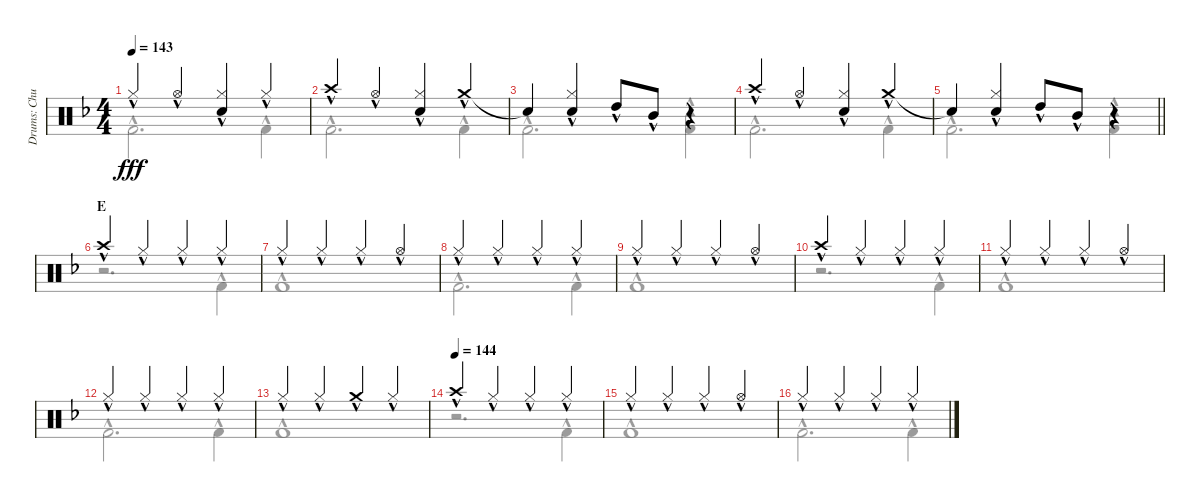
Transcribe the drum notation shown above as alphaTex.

\track ("Drums: Chuck" "Drums: Chu") {instrument percussion}
\staff {score}
\articulation defaults
\voice
\ts (4 4)
\tempo 143
\clef neutral
\ks f "Hi-Hat (closed)"{hac}.4{dy fff} "Hi-Hat (open)"{hac}.4
("Hi-Hat (closed)"{hac} "Snare (hit) 2"{hac}).4 "Hi-Hat (closed)"{hac}.4 |
"Crash high (hit)"{hac}.4 "Hi-Hat (open)"{hac}.4 ("Hi-Hat (closed)"{hac} "Snare (hit) 2"{hac}).4 "Crash medium (hit)"{hac}.4 |
"Snare (hit)"{t}.4 ("Hi-Hat (closed)"{hac} "Snare (hit) 2"{hac}).4 "High Tom (hit)"{hac}.8 "Mid Tom (hit)"{hac}.8 r.4 |
"Crash high (hit)"{hac}.4 "Hi-Hat (open)"{hac}.4 ("Hi-Hat (closed)"{hac} "Snare (hit) 2"{hac}).4 "Crash medium (hit)"{hac}.4 |
\barLineRight lightlight "Snare (hit)"{t}.4
("Hi-Hat (closed)"{hac} "Snare (hit) 2"{hac}).4 "High Tom (hit)"{hac}.8 "Mid Tom (hit)"{hac}.8 r.4 |
\section ("" "E")
"Crash high (hit)"{hac}.4 "Hi-Hat (closed)"{hac}.4 "Hi-Hat (closed)"{hac}.4 "Hi-Hat (closed)"{hac}.4 |
"Hi-Hat (closed)"{hac}.4 "Hi-Hat (closed)"{hac}.4 "Hi-Hat (closed)"{hac}.4 "Hi-Hat (open)"{hac}.4 |
"Hi-Hat (closed)"{hac}.4 "Hi-Hat (closed)"{hac}.4 "Hi-Hat (closed)"{hac}.4 "Hi-Hat (closed)"{hac}.4 |
"Hi-Hat (closed)"{hac}.4 "Hi-Hat (closed)"{hac}.4 "Hi-Hat (closed)"{hac}.4 "Hi-Hat (open)"{hac}.4 |
"Crash high (hit)"{hac}.4 "Hi-Hat (closed)"{hac}.4 "Hi-Hat (closed)"{hac}.4 "Hi-Hat (closed)"{hac}.4 |
"Hi-Hat (closed)"{hac}.4 "Hi-Hat (closed)"{hac}.4 "Hi-Hat (closed)"{hac}.4 "Hi-Hat (open)"{hac}.4 |
"Hi-Hat (closed)"{hac}.4 "Hi-Hat (closed)"{hac}.4 "Hi-Hat (closed)"{hac}.4 "Hi-Hat (closed)"{hac}.4 |
"Hi-Hat (closed)"{hac}.4 "Hi-Hat (closed)"{hac}.4 "Crash medium (hit)"{hac}.4 "Hi-Hat (closed)"{hac}.4 |
\tempo (144)
"Crash high (hit)"{hac}.4 "Hi-Hat (closed)"{hac}.4 "Hi-Hat (closed)"{hac}.4 "Hi-Hat (closed)"{hac}.4 |
"Hi-Hat (closed)"{hac}.4 "Hi-Hat (closed)"{hac}.4 "Hi-Hat (closed)"{hac}.4 "Hi-Hat (open)"{hac}.4 |
"Hi-Hat (closed)"{hac}.4 "Hi-Hat (closed)"{hac}.4 "Hi-Hat (closed)"{hac}.4 "Hi-Hat (closed)"{hac}.4
\voice
\clef neutral
\ottava regular
\simile none
\ks f "Kick (hit) 2"{hac}.2{d dy fff} "Kick (hit) 2"{hac}.4
|
"Kick (hit) 2"{hac}.2{d} "Kick (hit) 2"{hac}.4 |
"Kick (hit) 2"{hac}.2{d} ("Tambourine (hit)"{hac} "Kick (hit) 2"{hac}).4 |
"Kick (hit) 2"{hac}.2{d} "Kick (hit) 2"{hac}.4 |
\barLineRight lightlight "Kick (hit) 2"{hac}.2{d}
("Tambourine (hit)"{hac} "Kick (hit) 2"{hac}).4 |
r.2{d} "Kick (hit) 2"{hac}.4 |
"Kick (hit) 2"{hac}.1 |
"Kick (hit) 2"{hac}.2{d} "Kick (hit) 2"{hac}.4 |
"Kick (hit) 2"{hac}.1 |
r.2{d} "Kick (hit) 2"{hac}.4 |
"Kick (hit) 2"{hac}.1 |
"Kick (hit) 2"{hac}.2{d} "Kick (hit) 2"{hac}.4 |
"Kick (hit) 2"{hac}.1 |
r.2{d} "Kick (hit) 2"{hac}.4 |
"Kick (hit) 2"{hac}.1 |
"Kick (hit) 2"{hac}.2{d} "Kick (hit) 2"{hac}.4
